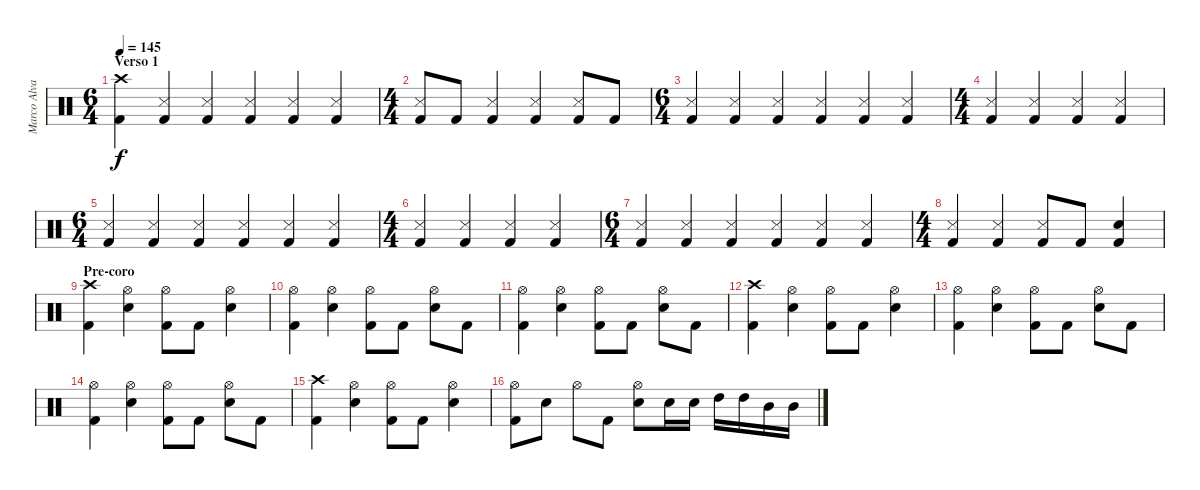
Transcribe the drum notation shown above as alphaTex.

\track ("Marco Alvarez" "Marco Alva") {instrument percussion}
\staff {score}
\articulation defaults
\ts (6 4)
\section ("" "Verso 1")
\tempo 145
\clef neutral
\ks c
("Kick (hit) 2" "Crash high (hit)").4{dy f} ("Kick (hit) 2" "Snare (side stick) 3").4 ("Kick (hit) 2" "Snare (side stick) 3").4 ("Kick (hit) 2" "Snare (side stick) 3").4 ("Kick (hit) 2" "Snare (side stick) 3").4 ("Kick (hit) 2" "Snare (side stick) 3").4 |
\ts (4 4)
("Kick (hit) 2" "Snare (side stick) 3").8 "Kick (hit) 2".8 ("Kick (hit) 2" "Snare (side stick) 3").4 ("Kick (hit) 2" "Snare (side stick) 3").4 ("Kick (hit) 2" "Snare (side stick) 3").8 "Kick (hit) 2".8 |
\ts (6 4)
("Kick (hit) 2" "Snare (side stick) 3").4 ("Kick (hit) 2" "Snare (side stick) 3").4 ("Kick (hit) 2" "Snare (side stick) 3").4 ("Kick (hit) 2" "Snare (side stick) 3").4 ("Kick (hit) 2" "Snare (side stick) 3").4 ("Kick (hit) 2" "Snare (side stick) 3").4 |
\ts (4 4)
("Kick (hit) 2" "Snare (side stick) 3").4 ("Kick (hit) 2" "Snare (side stick) 3").4 ("Kick (hit) 2" "Snare (side stick) 3").4 ("Kick (hit) 2" "Snare (side stick) 3").4 |
\ts (6 4)
("Kick (hit) 2" "Snare (side stick) 3").4 ("Kick (hit) 2" "Snare (side stick) 3").4 ("Kick (hit) 2" "Snare (side stick) 3").4 ("Kick (hit) 2" "Snare (side stick) 3").4 ("Kick (hit) 2" "Snare (side stick) 3").4 ("Kick (hit) 2" "Snare (side stick) 3").4 |
\ts (4 4)
("Kick (hit) 2" "Snare (side stick) 3").4 ("Kick (hit) 2" "Snare (side stick) 3").4 ("Kick (hit) 2" "Snare (side stick) 3").4 ("Kick (hit) 2" "Snare (side stick) 3").4 |
\ts (6 4)
("Kick (hit) 2" "Snare (side stick) 3").4 ("Kick (hit) 2" "Snare (side stick) 3").4 ("Kick (hit) 2" "Snare (side stick) 3").4 ("Kick (hit) 2" "Snare (side stick) 3").4 ("Kick (hit) 2" "Snare (side stick) 3").4 ("Kick (hit) 2" "Snare (side stick) 3").4 |
\ts (4 4)
("Kick (hit) 2" "Snare (side stick) 3").4 ("Kick (hit) 2" "Snare (side stick) 3").4 ("Kick (hit) 2" "Snare (side stick) 3").8 "Kick (hit) 2".8 ("Kick (hit) 2" "Electric Snare (hit)").4 |
\section ("" "Pre-coro")
("Kick (hit) 2" "Crash high (hit)").4 ("Electric Snare (hit)" "Hi-Hat (open)").4 ("Kick (hit) 2" "Hi-Hat (open)").8 "Kick (hit) 2".8 ("Electric Snare (hit)" "Hi-Hat (open)").4 |
("Kick (hit) 2" "Hi-Hat (open)").4 ("Electric Snare (hit)" "Hi-Hat (open)").4 ("Kick (hit) 2" "Hi-Hat (open)").8 "Kick (hit) 2".8 ("Electric Snare (hit)" "Hi-Hat (open)").8 "Kick (hit) 2".8 |
("Kick (hit) 2" "Hi-Hat (open)").4 ("Electric Snare (hit)" "Hi-Hat (open)").4 ("Kick (hit) 2" "Hi-Hat (open)").8 "Kick (hit) 2".8 ("Electric Snare (hit)" "Hi-Hat (open)").8 "Kick (hit) 2".8 |
("Kick (hit) 2" "Crash high (hit)").4 ("Electric Snare (hit)" "Hi-Hat (open)").4 ("Kick (hit) 2" "Hi-Hat (open)").8 "Kick (hit) 2".8 ("Electric Snare (hit)" "Hi-Hat (open)").4 |
("Kick (hit) 2" "Hi-Hat (open)").4 ("Electric Snare (hit)" "Hi-Hat (open)").4 ("Kick (hit) 2" "Hi-Hat (open)").8 "Kick (hit) 2".8 ("Electric Snare (hit)" "Hi-Hat (open)").8 "Kick (hit) 2".8 |
("Kick (hit) 2" "Hi-Hat (open)").4 ("Electric Snare (hit)" "Hi-Hat (open)").4 ("Kick (hit) 2" "Hi-Hat (open)").8 "Kick (hit) 2".8 ("Electric Snare (hit)" "Hi-Hat (open)").8 "Kick (hit) 2".8 |
("Kick (hit) 2" "Crash high (hit)").4 ("Electric Snare (hit)" "Hi-Hat (open)").4 ("Kick (hit) 2" "Hi-Hat (open)").8 "Kick (hit) 2".8 ("Electric Snare (hit)" "Hi-Hat (open)").4 |
("Kick (hit) 2" "Hi-Hat (open)").8 "Electric Snare (hit)".8 "Hi-Hat (open)".8 "Kick (hit) 2".8 ("Electric Snare (hit)" "Hi-Hat (open)").8 "Electric Snare (hit)".16 "Electric Snare (hit)".16 "High Tom (hit)".16 "High Tom (hit)".16 "Mid Tom (hit)".16 "Mid Tom (hit)".16
